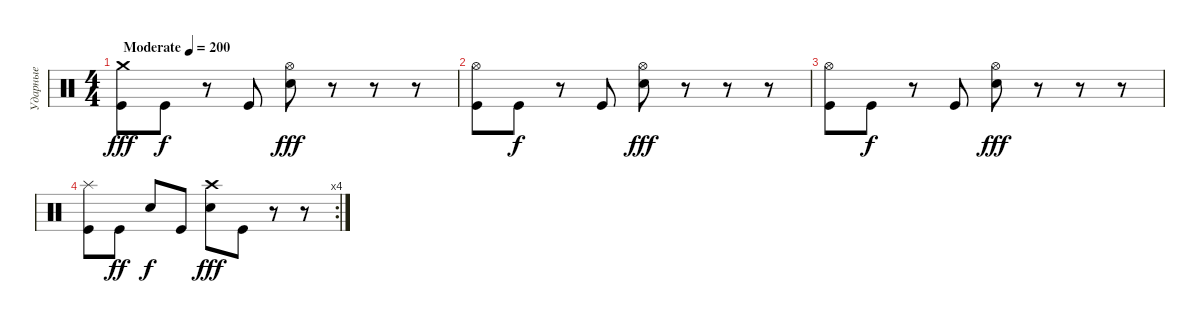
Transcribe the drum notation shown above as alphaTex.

\track ("Ударные" "Ударные") {instrument percussion}
\staff {score}
\articulation defaults
\ts (4 4)
\tempo (200 "Moderate")
\clef neutral
\ks c
("Crash medium (hit)" "Kick (hit)").8{dy fff} "Kick (hit)".8{dy f} r.8 "Kick (hit)".8 ("Hi-Hat (open)" "Electric Snare (hit)").8{dy fff} r.8 r.8 r.8 |
("Hi-Hat (open)" "Kick (hit)").8 "Kick (hit)".8{dy f} r.8 "Kick (hit)".8 ("Hi-Hat (open)" "Electric Snare (hit)").8{dy fff} r.8 r.8 r.8 |
("Hi-Hat (open)" "Kick (hit)").8 "Kick (hit)".8{dy f} r.8 "Kick (hit)".8 ("Hi-Hat (open)" "Electric Snare (hit)").8{dy fff} r.8 r.8 r.8 |
\rc 4
("Splash (hit)" "Kick (hit)").8 "Kick (hit)".8{dy ff} "Electric Snare (hit)".8{dy f} "Kick (hit)".8 ("Crash high (hit)" "Electric Snare (hit)").8{dy fff} "Kick (hit)".8 r.8 r.8
